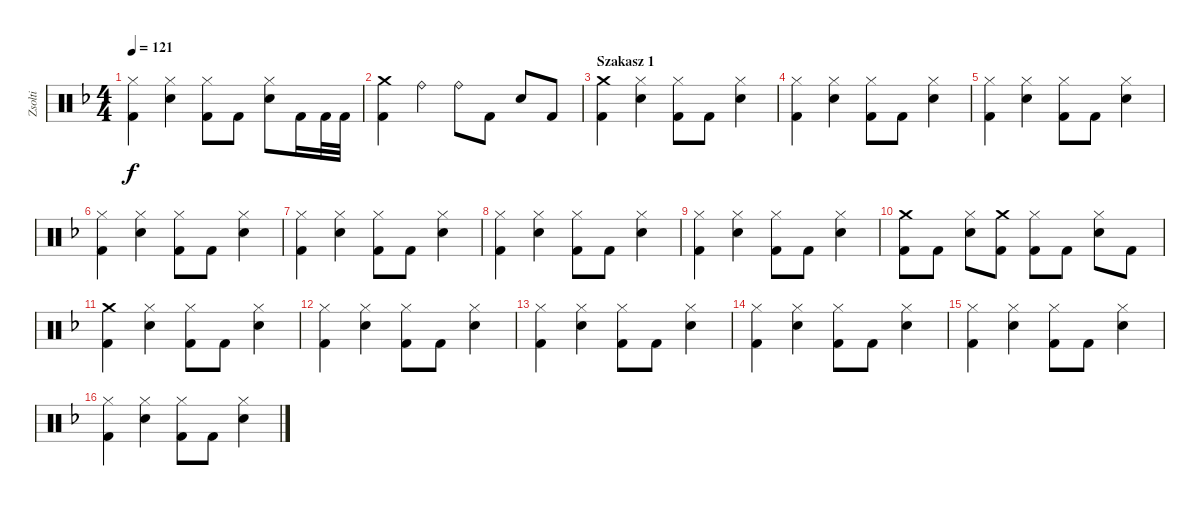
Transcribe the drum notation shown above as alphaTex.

\track ("Zsolti" "Zsolti") {instrument percussion}
\staff {score}
\articulation defaults
\ts (4 4)
\tempo 121
\clef neutral
\ks dminor
("Hi-Hat (closed)" "Kick (hit) 2").4{dy f} ("Hi-Hat (closed)" "Snare (hit) 2").4 ("Hi-Hat (closed)" "Kick (hit) 2").8 "Kick (hit) 2".8 ("Hi-Hat (closed)" "Snare (hit) 2").8 "Kick (hit) 2".16 "Kick (hit) 2".32 "Kick (hit) 2".32 |
("Crash medium (hit)" "Kick (hit) 2").4 "Ride (bell)".4 "Ride (bell)".8 "Kick (hit) 2".8 "Snare (hit) 2".8 "Kick (hit) 2".8 |
\section ("" "Szakasz 1")
("Crash medium (hit)" "Kick (hit) 2").4 ("Hi-Hat (closed)" "Snare (hit) 2").4 ("Hi-Hat (closed)" "Kick (hit) 2").8 "Kick (hit) 2".8 ("Hi-Hat (closed)" "Snare (hit) 2").4 |
("Hi-Hat (closed)" "Kick (hit) 2").4 ("Hi-Hat (closed)" "Snare (hit) 2").4 ("Hi-Hat (closed)" "Kick (hit) 2").8 "Kick (hit) 2".8 ("Hi-Hat (closed)" "Snare (hit) 2").4 |
("Hi-Hat (closed)" "Kick (hit) 2").4 ("Hi-Hat (closed)" "Snare (hit) 2").4 ("Hi-Hat (closed)" "Kick (hit) 2").8 "Kick (hit) 2".8 ("Hi-Hat (closed)" "Snare (hit) 2").4 |
("Hi-Hat (closed)" "Kick (hit) 2").4 ("Hi-Hat (closed)" "Snare (hit) 2").4 ("Hi-Hat (closed)" "Kick (hit) 2").8 "Kick (hit) 2".8 ("Hi-Hat (closed)" "Snare (hit) 2").4 |
("Hi-Hat (closed)" "Kick (hit) 2").4 ("Hi-Hat (closed)" "Snare (hit) 2").4 ("Hi-Hat (closed)" "Kick (hit) 2").8 "Kick (hit) 2".8 ("Hi-Hat (closed)" "Snare (hit) 2").4 |
("Hi-Hat (closed)" "Kick (hit) 2").4 ("Hi-Hat (closed)" "Snare (hit) 2").4 ("Hi-Hat (closed)" "Kick (hit) 2").8 "Kick (hit) 2".8 ("Hi-Hat (closed)" "Snare (hit) 2").4 |
("Hi-Hat (closed)" "Kick (hit) 2").4 ("Hi-Hat (closed)" "Snare (hit) 2").4 ("Hi-Hat (closed)" "Kick (hit) 2").8 "Kick (hit) 2".8 ("Hi-Hat (closed)" "Snare (hit) 2").4 |
("Crash medium (hit)" "Kick (hit) 2").8 "Kick (hit) 2".8 ("Hi-Hat (closed)" "Snare (hit) 2").8 ("Crash medium (hit)" "Kick (hit) 2").8 ("Hi-Hat (closed)" "Kick (hit) 2").8 "Kick (hit) 2".8 ("Hi-Hat (closed)" "Snare (hit) 2").8 "Kick (hit) 2".8 |
("Crash medium (hit)" "Kick (hit) 2").4 ("Hi-Hat (closed)" "Snare (hit) 2").4 ("Hi-Hat (closed)" "Kick (hit) 2").8 "Kick (hit) 2".8 ("Hi-Hat (closed)" "Snare (hit) 2").4 |
("Hi-Hat (closed)" "Kick (hit) 2").4 ("Hi-Hat (closed)" "Snare (hit) 2").4 ("Hi-Hat (closed)" "Kick (hit) 2").8 "Kick (hit) 2".8 ("Hi-Hat (closed)" "Snare (hit) 2").4 |
("Hi-Hat (closed)" "Kick (hit) 2").4 ("Hi-Hat (closed)" "Snare (hit) 2").4 ("Hi-Hat (closed)" "Kick (hit) 2").8 "Kick (hit) 2".8 ("Hi-Hat (closed)" "Snare (hit) 2").4 |
("Hi-Hat (closed)" "Kick (hit) 2").4 ("Hi-Hat (closed)" "Snare (hit) 2").4 ("Hi-Hat (closed)" "Kick (hit) 2").8 "Kick (hit) 2".8 ("Hi-Hat (closed)" "Snare (hit) 2").4 |
("Hi-Hat (closed)" "Kick (hit) 2").4 ("Hi-Hat (closed)" "Snare (hit) 2").4 ("Hi-Hat (closed)" "Kick (hit) 2").8 "Kick (hit) 2".8 ("Hi-Hat (closed)" "Snare (hit) 2").4 |
("Hi-Hat (closed)" "Kick (hit) 2").4 ("Hi-Hat (closed)" "Snare (hit) 2").4 ("Hi-Hat (closed)" "Kick (hit) 2").8 "Kick (hit) 2".8 ("Hi-Hat (closed)" "Snare (hit) 2").4
